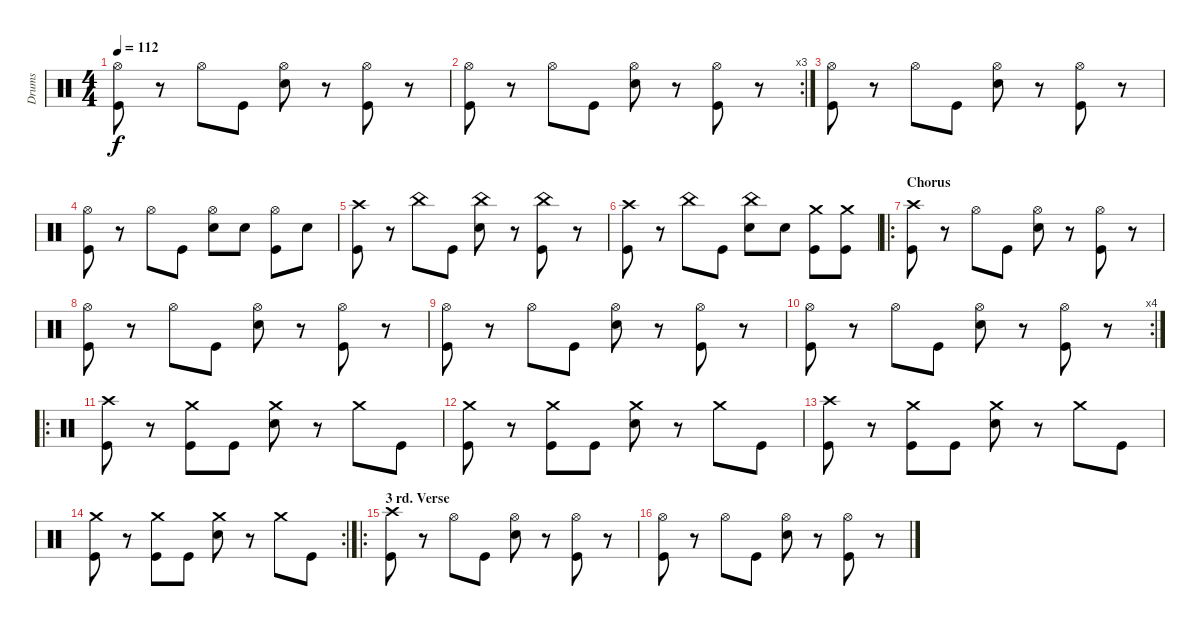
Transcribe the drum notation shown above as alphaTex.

\track ("Drums" "Drums") {instrument percussion}
\staff {score}
\articulation defaults
\ts (4 4)
\tempo 112
\clef neutral
\ks c
("Hi-Hat (open)" "Kick (hit)").8{dy f} r.8 "Hi-Hat (open)".8 "Kick (hit)".8 ("Hi-Hat (open)" "Snare (hit) 2").8 r.8 ("Hi-Hat (open)" "Kick (hit)").8 r.8 |
\rc 3
("Hi-Hat (open)" "Kick (hit)").8 r.8 "Hi-Hat (open)".8 "Kick (hit)".8 ("Hi-Hat (open)" "Snare (hit) 2").8 r.8 ("Hi-Hat (open)" "Kick (hit)").8 r.8 |
("Hi-Hat (open)" "Kick (hit)").8 r.8 "Hi-Hat (open)".8 "Kick (hit)".8 ("Hi-Hat (open)" "Snare (hit) 2").8 r.8 ("Hi-Hat (open)" "Kick (hit)").8 r.8 |
("Hi-Hat (open)" "Kick (hit)").8 r.8 "Hi-Hat (open)".8 "Kick (hit)".8 ("Hi-Hat (open)" "Snare (hit) 2").8 "Snare (hit) 2".8 ("Hi-Hat (open)" "Kick (hit)").8 "Snare (hit) 2".8 |
("Crash high (hit)" "Kick (hit)").8 r.8 "China (hit)".8 "Kick (hit)".8 ("China (hit)" "Snare (hit) 2").8 r.8 ("China (hit)" "Kick (hit)").8 r.8 |
("Crash high (hit)" "Kick (hit)").8 r.8 "China (hit)".8 "Kick (hit)".8 ("China (hit)" "Snare (hit) 2").8 "Snare (hit) 2".8 ("Crash medium (hit)" "Kick (hit)").8 ("Crash medium (hit)" "Kick (hit)").8 |
\ro
\section ("" "Chorus")
("Crash high (hit)" "Kick (hit)").8 r.8 "Hi-Hat (open)".8 "Kick (hit)".8 ("Hi-Hat (open)" "Snare (hit) 2").8 r.8 ("Hi-Hat (open)" "Kick (hit)").8 r.8 |
("Hi-Hat (open)" "Kick (hit)").8 r.8 "Hi-Hat (open)".8 "Kick (hit)".8 ("Hi-Hat (open)" "Snare (hit) 2").8 r.8 ("Hi-Hat (open)" "Kick (hit)").8 r.8 |
("Hi-Hat (open)" "Kick (hit)").8 r.8 "Hi-Hat (open)".8 "Kick (hit)".8 ("Hi-Hat (open)" "Snare (hit) 2").8 r.8 ("Hi-Hat (open)" "Kick (hit)").8 r.8 |
\rc 4
("Hi-Hat (open)" "Kick (hit)").8 r.8 "Hi-Hat (open)".8 "Kick (hit)".8 ("Hi-Hat (open)" "Snare (hit) 2").8 r.8 ("Hi-Hat (open)" "Kick (hit)").8 r.8 |
\ro
("Crash high (hit)" "Kick (hit)").8 r.8 ("Crash medium (hit)" "Kick (hit)").8 "Kick (hit)".8 ("Crash medium (hit)" "Snare (hit) 2").8 r.8 "Crash medium (hit)".8 "Kick (hit)".8 |
("Crash medium (hit)" "Kick (hit)").8 r.8 ("Crash medium (hit)" "Kick (hit)").8 "Kick (hit)".8 ("Crash medium (hit)" "Snare (hit) 2").8 r.8 "Crash medium (hit)".8 "Kick (hit)".8 |
("Crash high (hit)" "Kick (hit)").8 r.8 ("Crash medium (hit)" "Kick (hit)").8 "Kick (hit)".8 ("Crash medium (hit)" "Snare (hit) 2").8 r.8 "Crash medium (hit)".8 "Kick (hit)".8 |
\rc 2
("Crash medium (hit)" "Kick (hit)").8 r.8 ("Crash medium (hit)" "Kick (hit)").8 "Kick (hit)".8 ("Crash medium (hit)" "Snare (hit) 2").8 r.8 "Crash medium (hit)".8 "Kick (hit)".8 |
\ro
\section ("" "3 rd. Verse")
("Crash high (hit)" "Kick (hit)").8 r.8 "Hi-Hat (open)".8 "Kick (hit)".8 ("Hi-Hat (open)" "Snare (hit) 2").8 r.8 ("Hi-Hat (open)" "Kick (hit)").8 r.8 |
("Hi-Hat (open)" "Kick (hit)").8 r.8 "Hi-Hat (open)".8 "Kick (hit)".8 ("Hi-Hat (open)" "Snare (hit) 2").8 r.8 ("Hi-Hat (open)" "Kick (hit)").8 r.8
